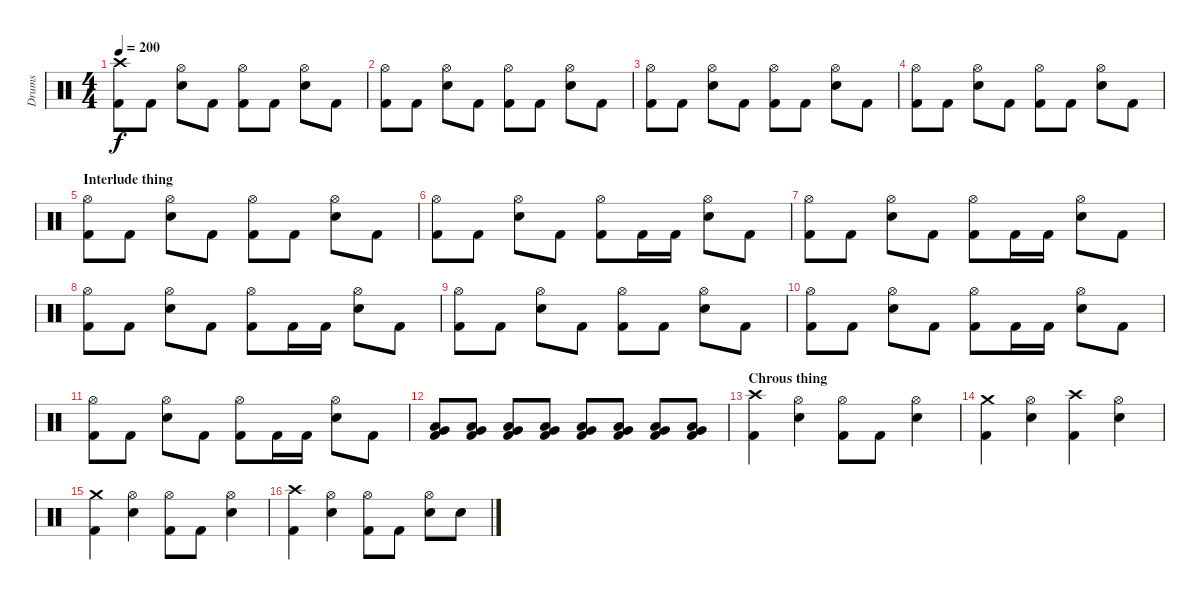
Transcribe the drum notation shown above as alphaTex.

\track ("Drums" "Drums") {instrument percussion}
\staff {score}
\articulation defaults
\ts (4 4)
\tempo 200
\clef neutral
\ks c
("Crash high (hit)" "Kick (hit) 2").8{dy f} "Kick (hit) 2".8 ("Hi-Hat (open)" "Electric Snare (hit)").8 "Kick (hit) 2".8 ("Hi-Hat (open)" "Kick (hit) 2").8 "Kick (hit) 2".8 ("Hi-Hat (open)" "Electric Snare (hit)").8 "Kick (hit) 2".8 |
("Hi-Hat (open)" "Kick (hit) 2").8 "Kick (hit) 2".8 ("Hi-Hat (open)" "Electric Snare (hit)").8 "Kick (hit) 2".8 ("Hi-Hat (open)" "Kick (hit) 2").8 "Kick (hit) 2".8 ("Hi-Hat (open)" "Electric Snare (hit)").8 "Kick (hit) 2".8 |
("Hi-Hat (open)" "Kick (hit) 2").8 "Kick (hit) 2".8 ("Hi-Hat (open)" "Electric Snare (hit)").8 "Kick (hit) 2".8 ("Hi-Hat (open)" "Kick (hit) 2").8 "Kick (hit) 2".8 ("Hi-Hat (open)" "Electric Snare (hit)").8 "Kick (hit) 2".8 |
("Hi-Hat (open)" "Kick (hit) 2").8 "Kick (hit) 2".8 ("Hi-Hat (open)" "Electric Snare (hit)").8 "Kick (hit) 2".8 ("Hi-Hat (open)" "Kick (hit) 2").8 "Kick (hit) 2".8 ("Hi-Hat (open)" "Electric Snare (hit)").8 "Kick (hit) 2".8 |
\section ("" "Interlude thing")
("Hi-Hat (open)" "Kick (hit) 2").8 "Kick (hit) 2".8 ("Hi-Hat (open)" "Electric Snare (hit)").8 "Kick (hit) 2".8 ("Hi-Hat (open)" "Kick (hit) 2").8 "Kick (hit) 2".8 ("Hi-Hat (open)" "Electric Snare (hit)").8 "Kick (hit) 2".8 |
("Hi-Hat (open)" "Kick (hit) 2").8 "Kick (hit) 2".8 ("Hi-Hat (open)" "Electric Snare (hit)").8 "Kick (hit) 2".8 ("Hi-Hat (open)" "Kick (hit) 2").8 "Kick (hit) 2".16 "Kick (hit) 2".16 ("Hi-Hat (open)" "Electric Snare (hit)").8 "Kick (hit) 2".8 |
("Hi-Hat (open)" "Kick (hit) 2").8 "Kick (hit) 2".8 ("Hi-Hat (open)" "Electric Snare (hit)").8 "Kick (hit) 2".8 ("Hi-Hat (open)" "Kick (hit) 2").8 "Kick (hit) 2".16 "Kick (hit) 2".16 ("Hi-Hat (open)" "Electric Snare (hit)").8 "Kick (hit) 2".8 |
("Hi-Hat (open)" "Kick (hit) 2").8 "Kick (hit) 2".8 ("Hi-Hat (open)" "Electric Snare (hit)").8 "Kick (hit) 2".8 ("Hi-Hat (open)" "Kick (hit) 2").8 "Kick (hit) 2".16 "Kick (hit) 2".16 ("Hi-Hat (open)" "Electric Snare (hit)").8 "Kick (hit) 2".8 |
("Hi-Hat (open)" "Kick (hit) 2").8 "Kick (hit) 2".8 ("Hi-Hat (open)" "Electric Snare (hit)").8 "Kick (hit) 2".8 ("Hi-Hat (open)" "Kick (hit) 2").8 "Kick (hit) 2".8 ("Hi-Hat (open)" "Electric Snare (hit)").8 "Kick (hit) 2".8 |
("Hi-Hat (open)" "Kick (hit) 2").8 "Kick (hit) 2".8 ("Hi-Hat (open)" "Electric Snare (hit)").8 "Kick (hit) 2".8 ("Hi-Hat (open)" "Kick (hit) 2").8 "Kick (hit) 2".16 "Kick (hit) 2".16 ("Hi-Hat (open)" "Electric Snare (hit)").8 "Kick (hit) 2".8 |
("Hi-Hat (open)" "Kick (hit) 2").8 "Kick (hit) 2".8 ("Hi-Hat (open)" "Electric Snare (hit)").8 "Kick (hit) 2".8 ("Hi-Hat (open)" "Kick (hit) 2").8 "Kick (hit) 2".16 "Kick (hit) 2".16 ("Hi-Hat (open)" "Electric Snare (hit)").8 "Kick (hit) 2".8 |
("Low Tom (hit)" "Very Low Tom (hit)" "Kick (hit) 2").8 ("Low Tom (hit)" "Very Low Tom (hit)" "Kick (hit) 2").8 ("Low Tom (hit)" "Very Low Tom (hit)" "Kick (hit) 2").8 ("Low Tom (hit)" "Very Low Tom (hit)" "Kick (hit) 2").8 ("Low Tom (hit)" "Very Low Tom (hit)" "Kick (hit) 2").8 ("Low Tom (hit)" "Very Low Tom (hit)" "Kick (hit) 2").8 ("Low Tom (hit)" "Very Low Tom (hit)" "Kick (hit) 2").8 ("Low Tom (hit)" "Very Low Tom (hit)" "Kick (hit) 2").8 |
\section ("" "Chrous thing")
("Crash high (hit)" "Kick (hit) 2").4 ("Hi-Hat (open)" "Electric Snare (hit)").4 ("Hi-Hat (open)" "Kick (hit) 2").8 "Kick (hit) 2".8 ("Hi-Hat (open)" "Electric Snare (hit)").4 |
("Crash medium (hit)" "Kick (hit) 2").4 ("Hi-Hat (open)" "Electric Snare (hit)").4 ("Crash high (hit)" "Kick (hit) 2").4 ("Hi-Hat (open)" "Electric Snare (hit)").4 |
("Crash medium (hit)" "Kick (hit) 2").4 ("Hi-Hat (open)" "Electric Snare (hit)").4 ("Hi-Hat (open)" "Kick (hit) 2").8 "Kick (hit) 2".8 ("Hi-Hat (open)" "Electric Snare (hit)").4 |
("Crash high (hit)" "Kick (hit) 2").4 ("Hi-Hat (open)" "Electric Snare (hit)").4 ("Hi-Hat (open)" "Kick (hit) 2").8 "Kick (hit) 2".8 ("Hi-Hat (open)" "Electric Snare (hit)").8 "Electric Snare (hit)".8
